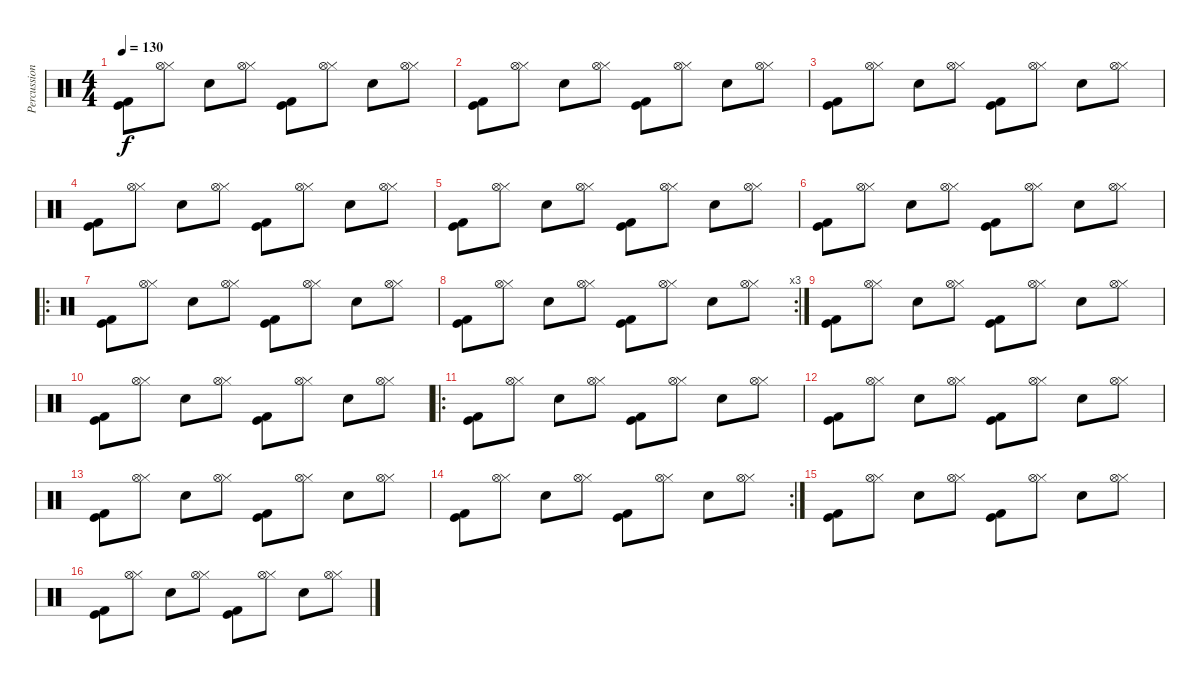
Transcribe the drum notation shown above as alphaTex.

\track ("Percussion" "Percussion") {instrument percussion}
\staff {score}
\articulation defaults
\ts (4 4)
\tempo 130
\clef neutral
\ks c
("Kick (hit)" "Kick (hit) 2").8{dy f} ("Hi-Hat (closed)" "Hi-Hat (open)").8 "Electric Snare (hit)".8 ("Hi-Hat (closed)" "Hi-Hat (open)").8 ("Kick (hit)" "Kick (hit) 2").8 ("Hi-Hat (closed)" "Hi-Hat (open)").8 "Electric Snare (hit)".8 ("Hi-Hat (closed)" "Hi-Hat (open)").8 |
("Kick (hit)" "Kick (hit) 2").8 ("Hi-Hat (closed)" "Hi-Hat (open)").8 "Electric Snare (hit)".8 ("Hi-Hat (closed)" "Hi-Hat (open)").8 ("Kick (hit)" "Kick (hit) 2").8 ("Hi-Hat (closed)" "Hi-Hat (open)").8 "Electric Snare (hit)".8 ("Hi-Hat (closed)" "Hi-Hat (open)").8 |
("Kick (hit)" "Kick (hit) 2").8 ("Hi-Hat (closed)" "Hi-Hat (open)").8 "Electric Snare (hit)".8 ("Hi-Hat (closed)" "Hi-Hat (open)").8 ("Kick (hit)" "Kick (hit) 2").8 ("Hi-Hat (closed)" "Hi-Hat (open)").8 "Electric Snare (hit)".8 ("Hi-Hat (closed)" "Hi-Hat (open)").8 |
("Kick (hit)" "Kick (hit) 2").8 ("Hi-Hat (closed)" "Hi-Hat (open)").8 "Electric Snare (hit)".8 ("Hi-Hat (closed)" "Hi-Hat (open)").8 ("Kick (hit)" "Kick (hit) 2").8 ("Hi-Hat (closed)" "Hi-Hat (open)").8 "Electric Snare (hit)".8 ("Hi-Hat (closed)" "Hi-Hat (open)").8 |
("Kick (hit)" "Kick (hit) 2").8 ("Hi-Hat (closed)" "Hi-Hat (open)").8 "Electric Snare (hit)".8 ("Hi-Hat (closed)" "Hi-Hat (open)").8 ("Kick (hit)" "Kick (hit) 2").8 ("Hi-Hat (closed)" "Hi-Hat (open)").8 "Electric Snare (hit)".8 ("Hi-Hat (closed)" "Hi-Hat (open)").8 |
("Kick (hit)" "Kick (hit) 2").8 ("Hi-Hat (closed)" "Hi-Hat (open)").8 "Electric Snare (hit)".8 ("Hi-Hat (closed)" "Hi-Hat (open)").8 ("Kick (hit)" "Kick (hit) 2").8 ("Hi-Hat (closed)" "Hi-Hat (open)").8 "Electric Snare (hit)".8 ("Hi-Hat (closed)" "Hi-Hat (open)").8 |
\ro
("Kick (hit)" "Kick (hit) 2").8 ("Hi-Hat (closed)" "Hi-Hat (open)").8 "Electric Snare (hit)".8 ("Hi-Hat (closed)" "Hi-Hat (open)").8 ("Kick (hit)" "Kick (hit) 2").8 ("Hi-Hat (closed)" "Hi-Hat (open)").8 "Electric Snare (hit)".8 ("Hi-Hat (closed)" "Hi-Hat (open)").8 |
\rc 3
("Kick (hit)" "Kick (hit) 2").8 ("Hi-Hat (closed)" "Hi-Hat (open)").8 "Electric Snare (hit)".8 ("Hi-Hat (closed)" "Hi-Hat (open)").8 ("Kick (hit)" "Kick (hit) 2").8 ("Hi-Hat (closed)" "Hi-Hat (open)").8 "Electric Snare (hit)".8 ("Hi-Hat (closed)" "Hi-Hat (open)").8 |
("Kick (hit)" "Kick (hit) 2").8 ("Hi-Hat (closed)" "Hi-Hat (open)").8 "Electric Snare (hit)".8 ("Hi-Hat (closed)" "Hi-Hat (open)").8 ("Kick (hit)" "Kick (hit) 2").8 ("Hi-Hat (closed)" "Hi-Hat (open)").8 "Electric Snare (hit)".8 ("Hi-Hat (closed)" "Hi-Hat (open)").8 |
("Kick (hit)" "Kick (hit) 2").8 ("Hi-Hat (closed)" "Hi-Hat (open)").8 "Electric Snare (hit)".8 ("Hi-Hat (closed)" "Hi-Hat (open)").8 ("Kick (hit)" "Kick (hit) 2").8 ("Hi-Hat (closed)" "Hi-Hat (open)").8 "Electric Snare (hit)".8 ("Hi-Hat (closed)" "Hi-Hat (open)").8 |
\ro
("Kick (hit)" "Kick (hit) 2").8 ("Hi-Hat (closed)" "Hi-Hat (open)").8 "Electric Snare (hit)".8 ("Hi-Hat (closed)" "Hi-Hat (open)").8 ("Kick (hit)" "Kick (hit) 2").8 ("Hi-Hat (closed)" "Hi-Hat (open)").8 "Electric Snare (hit)".8 ("Hi-Hat (closed)" "Hi-Hat (open)").8 |
("Kick (hit)" "Kick (hit) 2").8 ("Hi-Hat (closed)" "Hi-Hat (open)").8 "Electric Snare (hit)".8 ("Hi-Hat (closed)" "Hi-Hat (open)").8 ("Kick (hit)" "Kick (hit) 2").8 ("Hi-Hat (closed)" "Hi-Hat (open)").8 "Electric Snare (hit)".8 ("Hi-Hat (closed)" "Hi-Hat (open)").8 |
("Kick (hit)" "Kick (hit) 2").8 ("Hi-Hat (closed)" "Hi-Hat (open)").8 "Electric Snare (hit)".8 ("Hi-Hat (closed)" "Hi-Hat (open)").8 ("Kick (hit)" "Kick (hit) 2").8 ("Hi-Hat (closed)" "Hi-Hat (open)").8 "Electric Snare (hit)".8 ("Hi-Hat (closed)" "Hi-Hat (open)").8 |
\rc 2
("Kick (hit)" "Kick (hit) 2").8 ("Hi-Hat (closed)" "Hi-Hat (open)").8 "Electric Snare (hit)".8 ("Hi-Hat (closed)" "Hi-Hat (open)").8 ("Kick (hit)" "Kick (hit) 2").8 ("Hi-Hat (closed)" "Hi-Hat (open)").8 "Electric Snare (hit)".8 ("Hi-Hat (closed)" "Hi-Hat (open)").8 |
("Kick (hit)" "Kick (hit) 2").8 ("Hi-Hat (closed)" "Hi-Hat (open)").8 "Electric Snare (hit)".8 ("Hi-Hat (closed)" "Hi-Hat (open)").8 ("Kick (hit)" "Kick (hit) 2").8 ("Hi-Hat (closed)" "Hi-Hat (open)").8 "Electric Snare (hit)".8 ("Hi-Hat (closed)" "Hi-Hat (open)").8 |
("Kick (hit)" "Kick (hit) 2").8 ("Hi-Hat (closed)" "Hi-Hat (open)").8 "Electric Snare (hit)".8 ("Hi-Hat (closed)" "Hi-Hat (open)").8 ("Kick (hit)" "Kick (hit) 2").8 ("Hi-Hat (closed)" "Hi-Hat (open)").8 "Electric Snare (hit)".8 ("Hi-Hat (closed)" "Hi-Hat (open)").8
